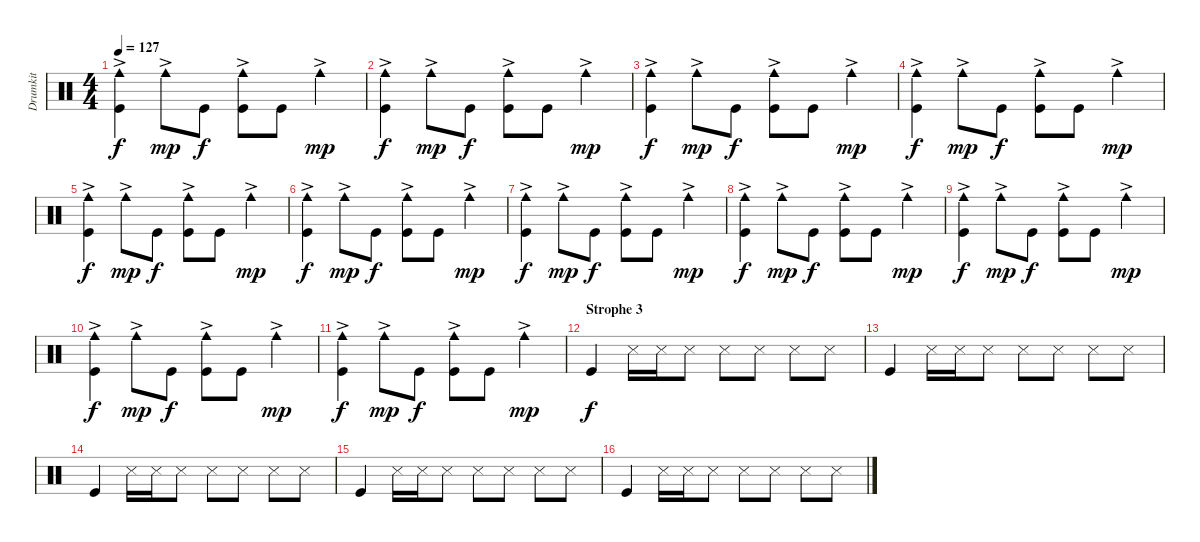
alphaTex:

\track ("Drumkit" "Drumkit") {instrument percussion}
\staff {score}
\articulation defaults
\ts (4 4)
\tempo 127
\clef neutral
\ks c
("Kick (hit)" "Cowbell medium (hit)"{ac}).4{dy f} "Cowbell medium (hit)"{ac}.8{dy mp} "Kick (hit)".8{dy f} ("Kick (hit)" "Cowbell medium (hit)"{ac}).8 "Kick (hit)".8 "Cowbell medium (hit)"{ac}.4{dy mp} |
("Kick (hit)" "Cowbell medium (hit)"{ac}).4{dy f} "Cowbell medium (hit)"{ac}.8{dy mp} "Kick (hit)".8{dy f} ("Kick (hit)" "Cowbell medium (hit)"{ac}).8 "Kick (hit)".8 "Cowbell medium (hit)"{ac}.4{dy mp} |
("Kick (hit)" "Cowbell medium (hit)"{ac}).4{dy f} "Cowbell medium (hit)"{ac}.8{dy mp} "Kick (hit)".8{dy f} ("Kick (hit)" "Cowbell medium (hit)"{ac}).8 "Kick (hit)".8 "Cowbell medium (hit)"{ac}.4{dy mp} |
("Kick (hit)" "Cowbell medium (hit)"{ac}).4{dy f} "Cowbell medium (hit)"{ac}.8{dy mp} "Kick (hit)".8{dy f} ("Kick (hit)" "Cowbell medium (hit)"{ac}).8 "Kick (hit)".8 "Cowbell medium (hit)"{ac}.4{dy mp} |
("Kick (hit)" "Cowbell medium (hit)"{ac}).4{dy f} "Cowbell medium (hit)"{ac}.8{dy mp} "Kick (hit)".8{dy f} ("Kick (hit)" "Cowbell medium (hit)"{ac}).8 "Kick (hit)".8 "Cowbell medium (hit)"{ac}.4{dy mp} |
("Kick (hit)" "Cowbell medium (hit)"{ac}).4{dy f} "Cowbell medium (hit)"{ac}.8{dy mp} "Kick (hit)".8{dy f} ("Kick (hit)" "Cowbell medium (hit)"{ac}).8 "Kick (hit)".8 "Cowbell medium (hit)"{ac}.4{dy mp} |
("Kick (hit)" "Cowbell medium (hit)"{ac}).4{dy f} "Cowbell medium (hit)"{ac}.8{dy mp} "Kick (hit)".8{dy f} ("Kick (hit)" "Cowbell medium (hit)"{ac}).8 "Kick (hit)".8 "Cowbell medium (hit)"{ac}.4{dy mp} |
("Kick (hit)" "Cowbell medium (hit)"{ac}).4{dy f} "Cowbell medium (hit)"{ac}.8{dy mp} "Kick (hit)".8{dy f} ("Kick (hit)" "Cowbell medium (hit)"{ac}).8 "Kick (hit)".8 "Cowbell medium (hit)"{ac}.4{dy mp} |
("Kick (hit)" "Cowbell medium (hit)"{ac}).4{dy f} "Cowbell medium (hit)"{ac}.8{dy mp} "Kick (hit)".8{dy f} ("Kick (hit)" "Cowbell medium (hit)"{ac}).8 "Kick (hit)".8 "Cowbell medium (hit)"{ac}.4{dy mp} |
("Kick (hit)" "Cowbell medium (hit)"{ac}).4{dy f} "Cowbell medium (hit)"{ac}.8{dy mp} "Kick (hit)".8{dy f} ("Kick (hit)" "Cowbell medium (hit)"{ac}).8 "Kick (hit)".8 "Cowbell medium (hit)"{ac}.4{dy mp} |
("Kick (hit)" "Cowbell medium (hit)"{ac}).4{dy f} "Cowbell medium (hit)"{ac}.8{dy mp} "Kick (hit)".8{dy f} ("Kick (hit)" "Cowbell medium (hit)"{ac}).8 "Kick (hit)".8 "Cowbell medium (hit)"{ac}.4{dy mp} |
\section ("" "Strophe 3")
"Kick (hit)".4{dy f} "Snare (side stick) 3".16 "Snare (side stick) 3".16 "Snare (side stick) 3".8 "Snare (side stick) 3".8 "Snare (side stick) 3".8 "Snare (side stick) 3".8 "Snare (side stick) 3".8 |
"Kick (hit)".4 "Snare (side stick) 3".16 "Snare (side stick) 3".16 "Snare (side stick) 3".8 "Snare (side stick) 3".8 "Snare (side stick) 3".8 "Snare (side stick) 3".8 "Snare (side stick) 3".8 |
"Kick (hit)".4 "Snare (side stick) 3".16 "Snare (side stick) 3".16 "Snare (side stick) 3".8 "Snare (side stick) 3".8 "Snare (side stick) 3".8 "Snare (side stick) 3".8 "Snare (side stick) 3".8 |
"Kick (hit)".4 "Snare (side stick) 3".16 "Snare (side stick) 3".16 "Snare (side stick) 3".8 "Snare (side stick) 3".8 "Snare (side stick) 3".8 "Snare (side stick) 3".8 "Snare (side stick) 3".8 |
"Kick (hit)".4 "Snare (side stick) 3".16 "Snare (side stick) 3".16 "Snare (side stick) 3".8 "Snare (side stick) 3".8 "Snare (side stick) 3".8 "Snare (side stick) 3".8 "Snare (side stick) 3".8
